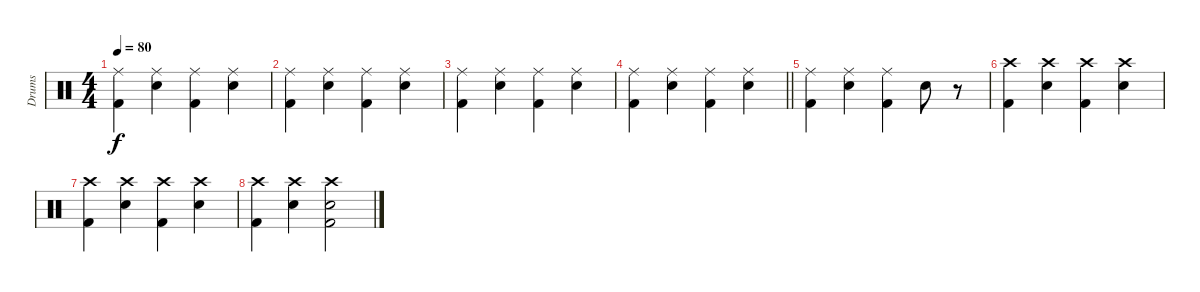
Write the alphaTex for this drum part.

\track ("Drums" "Drums") {instrument percussion}
\staff {score}
\articulation defaults
\ts (4 4)
\tempo 80
\clef neutral
\ks c
("Ride (middle)" "Kick (hit) 2").4{dy f} ("Ride (middle)" "Electric Snare (hit)").4 ("Ride (middle)" "Kick (hit) 2").4 ("Ride (middle)" "Electric Snare (hit)").4 |
("Ride (middle)" "Kick (hit) 2").4 ("Ride (middle)" "Electric Snare (hit)").4 ("Ride (middle)" "Kick (hit) 2").4 ("Ride (middle)" "Electric Snare (hit)").4 |
("Ride (middle)" "Kick (hit) 2").4 ("Ride (middle)" "Electric Snare (hit)").4 ("Ride (middle)" "Kick (hit) 2").4 ("Ride (middle)" "Electric Snare (hit)").4 |
\barLineRight lightlight
("Ride (middle)" "Kick (hit) 2").4 ("Ride (middle)" "Electric Snare (hit)").4 ("Ride (middle)" "Kick (hit) 2").4 ("Ride (middle)" "Electric Snare (hit)").4 |
("Ride (middle)" "Kick (hit) 2").4 ("Ride (middle)" "Electric Snare (hit)").4 ("Ride (middle)" "Kick (hit) 2").4 "Electric Snare (hit)".8 r.8 |
("Crash high (hit)" "Kick (hit) 2").4 ("Crash high (hit)" "Electric Snare (hit)").4 ("Crash high (hit)" "Kick (hit) 2").4 ("Crash high (hit)" "Electric Snare (hit)").4 |
("Crash high (hit)" "Kick (hit) 2").4 ("Crash high (hit)" "Electric Snare (hit)").4 ("Crash high (hit)" "Kick (hit) 2").4 ("Crash high (hit)" "Electric Snare (hit)").4 |
("Crash high (hit)" "Kick (hit) 2").4 ("Crash high (hit)" "Electric Snare (hit)").4 ("Crash high (hit)" "Electric Snare (hit)" "Kick (hit) 2").2
